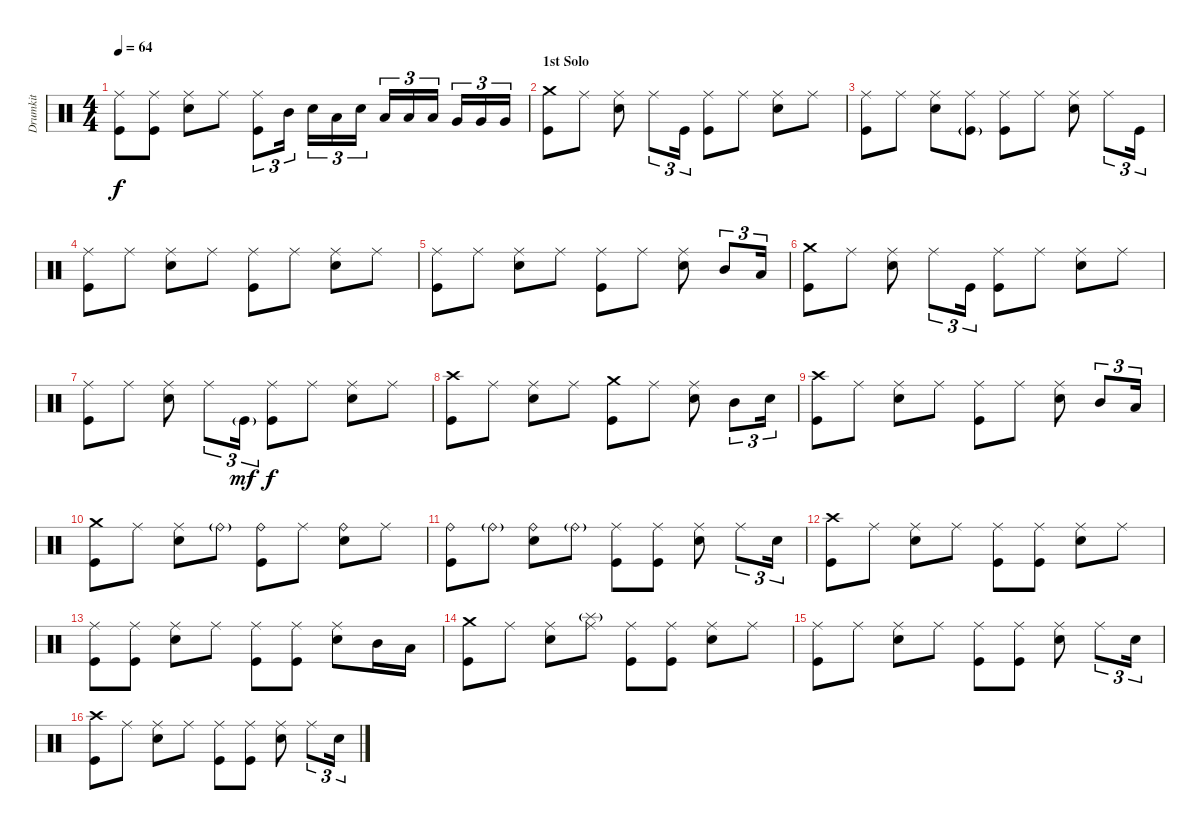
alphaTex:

\track ("Drumkit" "Drumkit") {instrument percussion}
\staff {score}
\articulation defaults
\ts (4 4)
\tempo 64
\clef neutral
\ks c
("Ride (middle)" "Kick (hit)").8{dy f} ("Ride (middle)" "Kick (hit)").8 ("Ride (middle)" "Snare (hit) 2").8 "Ride (middle)".8 ("Ride (middle)" "Kick (hit)").8{tu (3 2)} "Mid Tom (hit)".16{tu (3 2)} "Snare (hit) 2".16{tu (3 2)} "Low Tom (hit)".16{tu (3 2)} "Snare (hit) 2".16{tu (3 2)} "Low Tom (hit)".16{tu (3 2)} "Low Tom (hit)".16{tu (3 2)} "Low Tom (hit)".16{tu (3 2)} "Very Low Tom (hit)".16{tu (3 2)} "Very Low Tom (hit)".16{tu (3 2)} "Very Low Tom (hit)".16{tu (3 2)} |
\section ("" "1st Solo")
("Crash medium (hit)" "Kick (hit)").8 "Ride (middle)".8 ("Ride (middle)" "Snare (hit) 2").8 "Ride (middle)".8{tu (3 2)} "Kick (hit)".16{tu (3 2)} ("Ride (middle)" "Kick (hit)").8 "Ride (middle)".8 ("Ride (middle)" "Snare (hit) 2").8 "Ride (middle)".8 |
("Ride (middle)" "Kick (hit)").8 "Ride (middle)".8 ("Ride (middle)" "Snare (hit) 2").8 ("Ride (middle)" "Kick (hit)"{g}).8 ("Ride (middle)" "Kick (hit)").8 "Ride (middle)".8 ("Ride (middle)" "Snare (hit) 2").8 "Ride (middle)".8{tu (3 2)} "Kick (hit)".16{tu (3 2)} |
("Ride (middle)" "Kick (hit)").8 "Ride (middle)".8 ("Ride (middle)" "Snare (hit) 2").8 "Ride (middle)".8 ("Ride (middle)" "Kick (hit)").8 "Ride (middle)".8 ("Ride (middle)" "Snare (hit) 2").8 "Ride (middle)".8 |
("Ride (middle)" "Kick (hit)").8 "Ride (middle)".8 ("Ride (middle)" "Snare (hit) 2").8 "Ride (middle)".8 ("Ride (middle)" "Kick (hit)").8 "Ride (middle)".8 ("Ride (middle)" "Snare (hit) 2").8 "Mid Tom (hit)".8{tu (3 2)} "Low Tom (hit)".16{tu (3 2)} |
("Crash medium (hit)" "Kick (hit)").8 "Ride (middle)".8 ("Ride (middle)" "Snare (hit) 2").8 "Ride (middle)".8{tu (3 2)} "Kick (hit)".16{tu (3 2)} ("Ride (middle)" "Kick (hit)").8 "Ride (middle)".8 ("Ride (middle)" "Snare (hit) 2").8 "Ride (middle)".8 |
("Ride (middle)" "Kick (hit)").8 "Ride (middle)".8 ("Ride (middle)" "Snare (hit) 2").8 "Ride (middle)".8{tu (3 2)} "Kick (hit)"{g}.16{tu (3 2) dy mf} ("Ride (middle)" "Kick (hit)").8{dy f} "Ride (middle)".8 ("Ride (middle)" "Snare (hit) 2").8 "Ride (middle)".8 |
("Crash high (hit)" "Kick (hit)").8 "Ride (middle)".8 ("Ride (middle)" "Snare (hit) 2").8 "Ride (middle)".8 ("Crash medium (hit)" "Kick (hit)").8 "Ride (middle)".8 ("Ride (middle)" "Snare (hit) 2").8 "Mid Tom (hit)".8{tu (3 2)} "Snare (hit) 2".16{tu (3 2)} |
("Crash high (hit)" "Kick (hit)").8 "Ride (middle)".8 ("Ride (middle)" "Snare (hit) 2").8 "Ride (middle)".8 ("Ride (middle)" "Kick (hit)").8 "Ride (middle)".8 ("Ride (middle)" "Snare (hit) 2").8 "Mid Tom (hit)".8{tu (3 2)} "Low Tom (hit)".16{tu (3 2)} |
("Crash medium (hit)" "Kick (hit)").8 "Ride (middle)".8 ("Ride (middle)" "Snare (hit) 2").8 "Ride (bell)"{g}.8 ("Ride (bell)" "Kick (hit)").8 "Ride (middle)".8 ("Ride (bell)" "Snare (hit) 2").8 "Ride (middle)".8 |
("Ride (bell)" "Kick (hit)").8 "Ride (bell)"{g}.8 ("Ride (bell)" "Snare (hit) 2").8 "Ride (bell)"{g}.8 ("Ride (middle)" "Kick (hit)").8 ("Ride (middle)" "Kick (hit)").8 ("Ride (middle)" "Snare (hit) 2").8 "Ride (middle)".8{tu (3 2)} "Snare (hit) 2".16{tu (3 2)} |
("Crash high (hit)" "Kick (hit)").8 "Ride (middle)".8 ("Ride (middle)" "Snare (hit) 2").8 "Ride (middle)".8 ("Ride (middle)" "Kick (hit)").8 ("Ride (middle)" "Kick (hit)").8 ("Ride (middle)" "Snare (hit) 2").8 "Ride (middle)".8 |
("Ride (middle)" "Kick (hit)").8 ("Ride (middle)" "Kick (hit)").8 ("Ride (middle)" "Snare (hit) 2").8 "Ride (middle)".8 ("Ride (middle)" "Kick (hit)").8 ("Ride (middle)" "Kick (hit)").8 ("Ride (middle)" "Snare (hit) 2").8 "Mid Tom (hit)".16 "Low Tom (hit)".16 |
("Crash medium (hit)" "Kick (hit)").8 "Ride (middle)".8 ("Ride (middle)" "Snare (hit) 2").8 ("Splash (hit)"{g} "Ride (middle)").8 ("Ride (middle)" "Kick (hit)").8 ("Ride (middle)" "Kick (hit)").8 ("Ride (middle)" "Snare (hit) 2").8 "Ride (middle)".8 |
("Ride (middle)" "Kick (hit)").8 "Ride (middle)".8 ("Ride (middle)" "Snare (hit) 2").8 "Ride (middle)".8 ("Ride (middle)" "Kick (hit)").8 ("Ride (middle)" "Kick (hit)").8 ("Ride (middle)" "Snare (hit) 2").8 "Ride (middle)".8{tu (3 2)} "Snare (hit) 2".16{tu (3 2)} |
("Crash high (hit)" "Kick (hit)").8 "Ride (middle)".8 ("Ride (middle)" "Snare (hit) 2").8 "Ride (middle)".8 ("Ride (middle)" "Kick (hit)").8 ("Ride (middle)" "Kick (hit)").8 ("Ride (middle)" "Snare (hit) 2").8 "Ride (middle)".8{tu (3 2)} "Snare (hit) 2".16{tu (3 2)}
